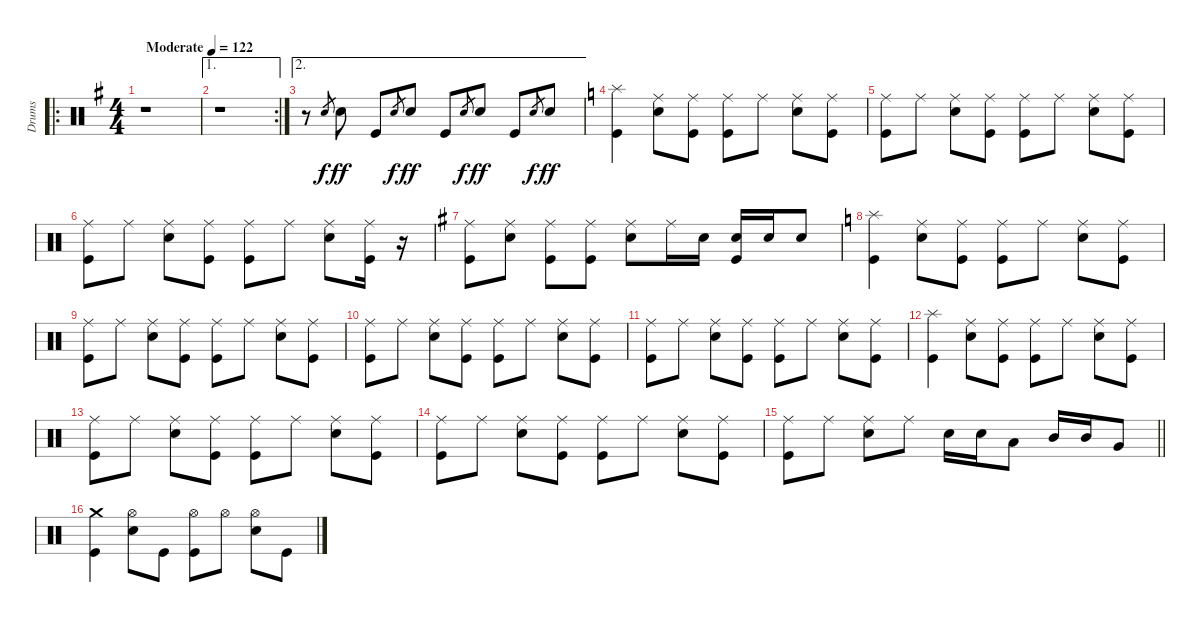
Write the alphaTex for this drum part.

\track ("Drums" "Drums") {instrument percussion}
\staff {score}
\articulation defaults
\ro
\ts (4 4)
\tempo (122 "Moderate")
\clef neutral
\ks g
r.1{dy f} |
\ae 1
\rc 2
r.1 |
\ae 2
r.8 "Snare (hit) 2".8{gr} "Snare (hit) 2".8{dy ff} "Kick (hit)".8 "Snare (hit) 2".8{gr dy f} "Snare (hit) 2".8{dy ff} "Kick (hit)".8 "Snare (hit) 2".8{gr dy f} "Snare (hit) 2".8{dy ff} "Kick (hit)".8 "Snare (hit) 2".8{gr dy f} "Snare (hit) 2".8{dy ff} |
\ks c
("Splash (hit)" "Kick (hit)").4 ("Ride (middle)" "Snare (hit) 2").8 ("Ride (middle)" "Kick (hit)").8 ("Ride (middle)" "Kick (hit)").8 "Ride (middle)".8 ("Ride (middle)" "Snare (hit) 2").8 ("Ride (middle)" "Kick (hit)").8 |
("Ride (middle)" "Kick (hit)").8 "Ride (middle)".8 ("Ride (middle)" "Snare (hit) 2").8 ("Ride (middle)" "Kick (hit)").8 ("Ride (middle)" "Kick (hit)").8 "Ride (middle)".8 ("Ride (middle)" "Snare (hit) 2").8 ("Ride (middle)" "Kick (hit)").8 |
("Ride (middle)" "Kick (hit)").8 "Ride (middle)".8 ("Ride (middle)" "Snare (hit) 2").8 ("Ride (middle)" "Kick (hit)").8 ("Ride (middle)" "Kick (hit)").8 "Ride (middle)".8 ("Ride (middle)" "Snare (hit) 2").8 ("Ride (middle)" "Kick (hit)").16 r.16 |
\ks g
("Ride (middle)" "Kick (hit)").8 ("Ride (middle)" "Snare (hit) 2").8 ("Ride (middle)" "Kick (hit)").8 ("Ride (middle)" "Kick (hit)").8 ("Ride (middle)" "Snare (hit) 2").8 "Ride (middle)".16 "Snare (hit) 2".16 ("Snare (hit) 2" "Kick (hit)").16 "Snare (hit) 2".16 "Snare (hit) 2".8 |
\ks c
("Splash (hit)" "Kick (hit)").4 ("Ride (middle)" "Snare (hit) 2").8 ("Ride (middle)" "Kick (hit)").8 ("Ride (middle)" "Kick (hit)").8 "Ride (middle)".8 ("Ride (middle)" "Snare (hit) 2").8 ("Ride (middle)" "Kick (hit)").8 |
("Ride (middle)" "Kick (hit)").8 "Ride (middle)".8 ("Ride (middle)" "Snare (hit) 2").8 ("Ride (middle)" "Kick (hit)").8 ("Ride (middle)" "Kick (hit)").8 "Ride (middle)".8 ("Ride (middle)" "Snare (hit) 2").8 ("Ride (middle)" "Kick (hit)").8 |
("Ride (middle)" "Kick (hit)").8 "Ride (middle)".8 ("Ride (middle)" "Snare (hit) 2").8 ("Ride (middle)" "Kick (hit)").8 ("Ride (middle)" "Kick (hit)").8 "Ride (middle)".8 ("Ride (middle)" "Snare (hit) 2").8 ("Ride (middle)" "Kick (hit)").8 |
("Ride (middle)" "Kick (hit)").8 "Ride (middle)".8 ("Ride (middle)" "Snare (hit) 2").8 ("Ride (middle)" "Kick (hit)").8 ("Ride (middle)" "Kick (hit)").8 "Ride (middle)".8 ("Ride (middle)" "Snare (hit) 2").8 ("Ride (middle)" "Kick (hit)").8 |
("Splash (hit)" "Kick (hit)").4 ("Ride (middle)" "Snare (hit) 2").8 ("Ride (middle)" "Kick (hit)").8 ("Ride (middle)" "Kick (hit)").8 "Ride (middle)".8 ("Ride (middle)" "Snare (hit) 2").8 ("Ride (middle)" "Kick (hit)").8 |
("Ride (middle)" "Kick (hit)").8 "Ride (middle)".8 ("Ride (middle)" "Snare (hit) 2").8 ("Ride (middle)" "Kick (hit)").8 ("Ride (middle)" "Kick (hit)").8 "Ride (middle)".8 ("Ride (middle)" "Snare (hit) 2").8 ("Ride (middle)" "Kick (hit)").8 |
("Ride (middle)" "Kick (hit)").8 "Ride (middle)".8 ("Ride (middle)" "Snare (hit) 2").8 ("Ride (middle)" "Kick (hit)").8 ("Ride (middle)" "Kick (hit)").8 "Ride (middle)".8 ("Ride (middle)" "Snare (hit) 2").8 ("Ride (middle)" "Kick (hit)").8 |
\barLineRight lightlight
("Ride (middle)" "Kick (hit)").8 "Ride (middle)".8 ("Ride (middle)" "Snare (hit) 2").8 "Ride (middle)".8 "Snare (hit) 2".16 "Snare (hit) 2".16 "Low Tom (hit)".8 "Mid Tom (hit)".16 "Mid Tom (hit)".16 "Very Low Tom (hit)".8 |
("Crash medium (hit)" "Kick (hit)").4 ("Hi-Hat (open)" "Snare (hit) 2").8 "Kick (hit)".8 ("Hi-Hat (open)" "Kick (hit)").8 "Hi-Hat (open)".8 ("Hi-Hat (open)" "Snare (hit) 2").8 "Kick (hit)".8
